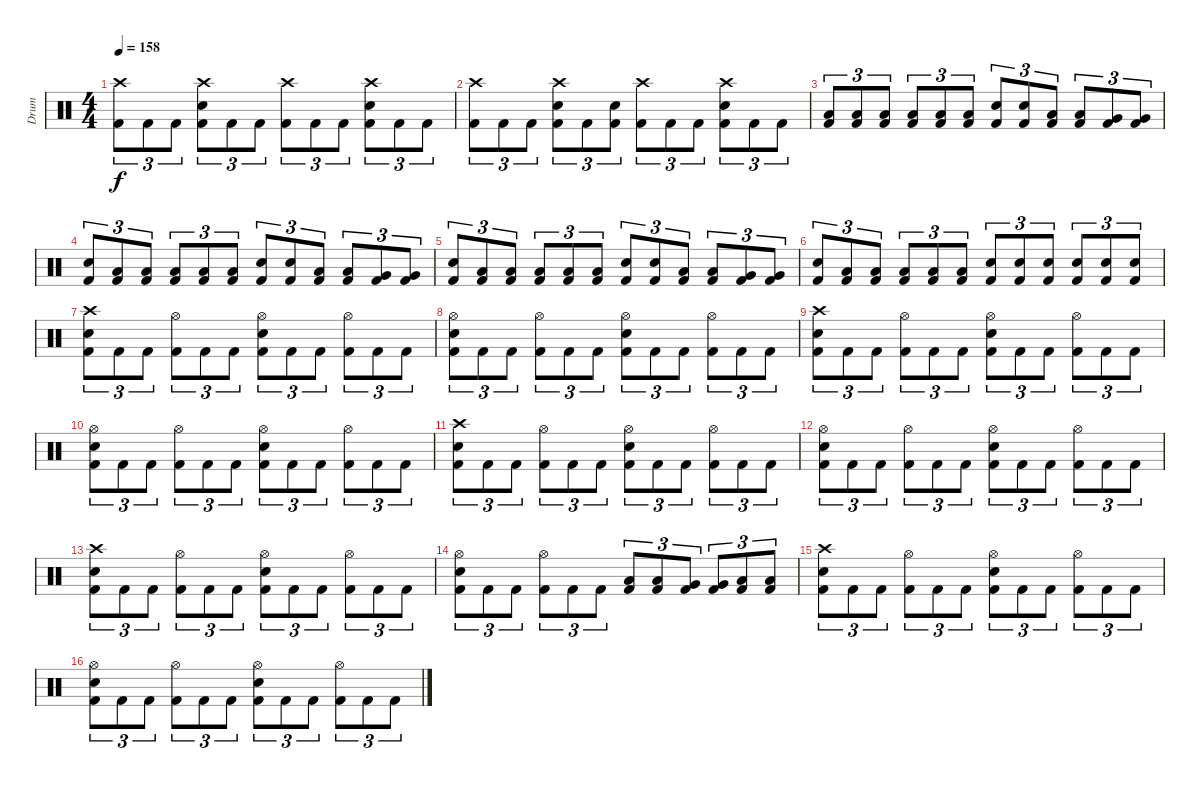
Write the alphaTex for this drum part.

\track ("Drum" "Drum") {instrument percussion}
\staff {score}
\articulation defaults
\ts (4 4)
\tempo 158
\clef neutral
\ks c
("Crash high (hit)" "Kick (hit) 2").8{tu (3 2) dy f} "Kick (hit) 2".8{tu (3 2)} "Kick (hit) 2".8{tu (3 2)} ("Crash high (hit)" "Electric Snare (hit)" "Kick (hit) 2").8{tu (3 2)} "Kick (hit) 2".8{tu (3 2)} "Kick (hit) 2".8{tu (3 2)} ("Crash high (hit)" "Kick (hit) 2").8{tu (3 2)} "Kick (hit) 2".8{tu (3 2)} "Kick (hit) 2".8{tu (3 2)} ("Crash high (hit)" "Electric Snare (hit)" "Kick (hit) 2").8{tu (3 2)} "Kick (hit) 2".8{tu (3 2)} "Kick (hit) 2".8{tu (3 2)} |
("Crash high (hit)" "Kick (hit) 2").8{tu (3 2)} "Kick (hit) 2".8{tu (3 2)} "Kick (hit) 2".8{tu (3 2)} ("Crash high (hit)" "Electric Snare (hit)" "Kick (hit) 2").8{tu (3 2)} "Kick (hit) 2".8{tu (3 2)} ("Electric Snare (hit)" "Kick (hit) 2").8{tu (3 2)} ("Crash high (hit)" "Kick (hit) 2").8{tu (3 2)} "Kick (hit) 2".8{tu (3 2)} "Kick (hit) 2".8{tu (3 2)} ("Crash high (hit)" "Electric Snare (hit)" "Kick (hit) 2").8{tu (3 2)} "Kick (hit) 2".8{tu (3 2)} "Kick (hit) 2".8{tu (3 2)} |
("Low Floor Tom (hit)" "Kick (hit) 2").8{tu (3 2)} ("Low Floor Tom (hit)" "Kick (hit) 2").8{tu (3 2)} ("Low Floor Tom (hit)" "Kick (hit) 2").8{tu (3 2)} ("Low Floor Tom (hit)" "Kick (hit) 2").8{tu (3 2)} ("Low Floor Tom (hit)" "Kick (hit) 2").8{tu (3 2)} ("Low Floor Tom (hit)" "Kick (hit) 2").8{tu (3 2)} ("Electric Snare (hit)" "Kick (hit) 2").8{tu (3 2)} ("Electric Snare (hit)" "Kick (hit) 2").8{tu (3 2)} ("Low Tom (hit)" "Kick (hit) 2").8{tu (3 2)} ("Low Tom (hit)" "Kick (hit) 2").8{tu (3 2)} ("Very Low Tom (hit)" "Kick (hit) 2").8{tu (3 2)} ("Very Low Tom (hit)" "Kick (hit) 2").8{tu (3 2)} |
("Electric Snare (hit)" "Kick (hit) 2").8{tu (3 2)} ("Low Floor Tom (hit)" "Kick (hit) 2").8{tu (3 2)} ("Low Floor Tom (hit)" "Kick (hit) 2").8{tu (3 2)} ("Low Floor Tom (hit)" "Kick (hit) 2").8{tu (3 2)} ("Low Floor Tom (hit)" "Kick (hit) 2").8{tu (3 2)} ("Low Floor Tom (hit)" "Kick (hit) 2").8{tu (3 2)} ("Electric Snare (hit)" "Kick (hit) 2").8{tu (3 2)} ("Electric Snare (hit)" "Kick (hit) 2").8{tu (3 2)} ("Low Tom (hit)" "Kick (hit) 2").8{tu (3 2)} ("Low Tom (hit)" "Kick (hit) 2").8{tu (3 2)} ("Very Low Tom (hit)" "Kick (hit) 2").8{tu (3 2)} ("Very Low Tom (hit)" "Kick (hit) 2").8{tu (3 2)} |
("Electric Snare (hit)" "Kick (hit) 2").8{tu (3 2)} ("Low Floor Tom (hit)" "Kick (hit) 2").8{tu (3 2)} ("Low Floor Tom (hit)" "Kick (hit) 2").8{tu (3 2)} ("Low Floor Tom (hit)" "Kick (hit) 2").8{tu (3 2)} ("Low Floor Tom (hit)" "Kick (hit) 2").8{tu (3 2)} ("Low Floor Tom (hit)" "Kick (hit) 2").8{tu (3 2)} ("Electric Snare (hit)" "Kick (hit) 2").8{tu (3 2)} ("Electric Snare (hit)" "Kick (hit) 2").8{tu (3 2)} ("Low Tom (hit)" "Kick (hit) 2").8{tu (3 2)} ("Low Tom (hit)" "Kick (hit) 2").8{tu (3 2)} ("Very Low Tom (hit)" "Kick (hit) 2").8{tu (3 2)} ("Very Low Tom (hit)" "Kick (hit) 2").8{tu (3 2)} |
("Electric Snare (hit)" "Kick (hit) 2").8{tu (3 2)} ("Low Floor Tom (hit)" "Kick (hit) 2").8{tu (3 2)} ("Low Floor Tom (hit)" "Kick (hit) 2").8{tu (3 2)} ("Low Floor Tom (hit)" "Kick (hit) 2").8{tu (3 2)} ("Low Floor Tom (hit)" "Kick (hit) 2").8{tu (3 2)} ("Low Floor Tom (hit)" "Kick (hit) 2").8{tu (3 2)} ("Electric Snare (hit)" "Kick (hit) 2").8{tu (3 2)} ("Electric Snare (hit)" "Kick (hit) 2").8{tu (3 2)} ("Electric Snare (hit)" "Kick (hit) 2").8{tu (3 2)} ("Electric Snare (hit)" "Kick (hit) 2").8{tu (3 2)} ("Electric Snare (hit)" "Kick (hit) 2").8{tu (3 2)} ("Electric Snare (hit)" "Kick (hit) 2").8{tu (3 2)} |
("Crash high (hit)" "Electric Snare (hit)" "Kick (hit) 2").8{tu (3 2)} "Kick (hit) 2".8{tu (3 2)} "Kick (hit) 2".8{tu (3 2)} ("Hi-Hat (open)" "Kick (hit) 2").8{tu (3 2)} "Kick (hit) 2".8{tu (3 2)} "Kick (hit) 2".8{tu (3 2)} ("Hi-Hat (open)" "Electric Snare (hit)" "Kick (hit) 2").8{tu (3 2)} "Kick (hit) 2".8{tu (3 2)} "Kick (hit) 2".8{tu (3 2)} ("Hi-Hat (open)" "Kick (hit) 2").8{tu (3 2)} "Kick (hit) 2".8{tu (3 2)} "Kick (hit) 2".8{tu (3 2)} |
("Hi-Hat (open)" "Electric Snare (hit)" "Kick (hit) 2").8{tu (3 2)} "Kick (hit) 2".8{tu (3 2)} "Kick (hit) 2".8{tu (3 2)} ("Hi-Hat (open)" "Kick (hit) 2").8{tu (3 2)} "Kick (hit) 2".8{tu (3 2)} "Kick (hit) 2".8{tu (3 2)} ("Hi-Hat (open)" "Electric Snare (hit)" "Kick (hit) 2").8{tu (3 2)} "Kick (hit) 2".8{tu (3 2)} "Kick (hit) 2".8{tu (3 2)} ("Hi-Hat (open)" "Kick (hit) 2").8{tu (3 2)} "Kick (hit) 2".8{tu (3 2)} "Kick (hit) 2".8{tu (3 2)} |
("Crash high (hit)" "Electric Snare (hit)" "Kick (hit) 2").8{tu (3 2)} "Kick (hit) 2".8{tu (3 2)} "Kick (hit) 2".8{tu (3 2)} ("Hi-Hat (open)" "Kick (hit) 2").8{tu (3 2)} "Kick (hit) 2".8{tu (3 2)} "Kick (hit) 2".8{tu (3 2)} ("Hi-Hat (open)" "Electric Snare (hit)" "Kick (hit) 2").8{tu (3 2)} "Kick (hit) 2".8{tu (3 2)} "Kick (hit) 2".8{tu (3 2)} ("Hi-Hat (open)" "Kick (hit) 2").8{tu (3 2)} "Kick (hit) 2".8{tu (3 2)} "Kick (hit) 2".8{tu (3 2)} |
("Hi-Hat (open)" "Electric Snare (hit)" "Kick (hit) 2").8{tu (3 2)} "Kick (hit) 2".8{tu (3 2)} "Kick (hit) 2".8{tu (3 2)} ("Hi-Hat (open)" "Kick (hit) 2").8{tu (3 2)} "Kick (hit) 2".8{tu (3 2)} "Kick (hit) 2".8{tu (3 2)} ("Hi-Hat (open)" "Electric Snare (hit)" "Kick (hit) 2").8{tu (3 2)} "Kick (hit) 2".8{tu (3 2)} "Kick (hit) 2".8{tu (3 2)} ("Hi-Hat (open)" "Kick (hit) 2").8{tu (3 2)} "Kick (hit) 2".8{tu (3 2)} "Kick (hit) 2".8{tu (3 2)} |
("Crash high (hit)" "Electric Snare (hit)" "Kick (hit) 2").8{tu (3 2)} "Kick (hit) 2".8{tu (3 2)} "Kick (hit) 2".8{tu (3 2)} ("Hi-Hat (open)" "Kick (hit) 2").8{tu (3 2)} "Kick (hit) 2".8{tu (3 2)} "Kick (hit) 2".8{tu (3 2)} ("Hi-Hat (open)" "Electric Snare (hit)" "Kick (hit) 2").8{tu (3 2)} "Kick (hit) 2".8{tu (3 2)} "Kick (hit) 2".8{tu (3 2)} ("Hi-Hat (open)" "Kick (hit) 2").8{tu (3 2)} "Kick (hit) 2".8{tu (3 2)} "Kick (hit) 2".8{tu (3 2)} |
("Hi-Hat (open)" "Electric Snare (hit)" "Kick (hit) 2").8{tu (3 2)} "Kick (hit) 2".8{tu (3 2)} "Kick (hit) 2".8{tu (3 2)} ("Hi-Hat (open)" "Kick (hit) 2").8{tu (3 2)} "Kick (hit) 2".8{tu (3 2)} "Kick (hit) 2".8{tu (3 2)} ("Hi-Hat (open)" "Electric Snare (hit)" "Kick (hit) 2").8{tu (3 2)} "Kick (hit) 2".8{tu (3 2)} "Kick (hit) 2".8{tu (3 2)} ("Hi-Hat (open)" "Kick (hit) 2").8{tu (3 2)} "Kick (hit) 2".8{tu (3 2)} "Kick (hit) 2".8{tu (3 2)} |
("Crash high (hit)" "Electric Snare (hit)" "Kick (hit) 2").8{tu (3 2)} "Kick (hit) 2".8{tu (3 2)} "Kick (hit) 2".8{tu (3 2)} ("Hi-Hat (open)" "Kick (hit) 2").8{tu (3 2)} "Kick (hit) 2".8{tu (3 2)} "Kick (hit) 2".8{tu (3 2)} ("Hi-Hat (open)" "Electric Snare (hit)" "Kick (hit) 2").8{tu (3 2)} "Kick (hit) 2".8{tu (3 2)} "Kick (hit) 2".8{tu (3 2)} ("Hi-Hat (open)" "Kick (hit) 2").8{tu (3 2)} "Kick (hit) 2".8{tu (3 2)} "Kick (hit) 2".8{tu (3 2)} |
("Hi-Hat (open)" "Electric Snare (hit)" "Kick (hit) 2").8{tu (3 2)} "Kick (hit) 2".8{tu (3 2)} "Kick (hit) 2".8{tu (3 2)} ("Hi-Hat (open)" "Kick (hit) 2").8{tu (3 2)} "Kick (hit) 2".8{tu (3 2)} "Kick (hit) 2".8{tu (3 2)} ("Low Tom (hit)" "Kick (hit) 2").8{tu (3 2)} ("Low Tom (hit)" "Kick (hit) 2").8{tu (3 2)} ("Very Low Tom (hit)" "Kick (hit) 2").8{tu (3 2)} ("Very Low Tom (hit)" "Kick (hit) 2").8{tu (3 2)} ("Low Floor Tom (hit)" "Kick (hit) 2").8{tu (3 2)} ("Low Floor Tom (hit)" "Kick (hit) 2").8{tu (3 2)} |
("Crash high (hit)" "Electric Snare (hit)" "Kick (hit) 2").8{tu (3 2)} "Kick (hit) 2".8{tu (3 2)} "Kick (hit) 2".8{tu (3 2)} ("Hi-Hat (open)" "Kick (hit) 2").8{tu (3 2)} "Kick (hit) 2".8{tu (3 2)} "Kick (hit) 2".8{tu (3 2)} ("Hi-Hat (open)" "Electric Snare (hit)" "Kick (hit) 2").8{tu (3 2)} "Kick (hit) 2".8{tu (3 2)} "Kick (hit) 2".8{tu (3 2)} ("Hi-Hat (open)" "Kick (hit) 2").8{tu (3 2)} "Kick (hit) 2".8{tu (3 2)} "Kick (hit) 2".8{tu (3 2)} |
("Hi-Hat (open)" "Electric Snare (hit)" "Kick (hit) 2").8{tu (3 2)} "Kick (hit) 2".8{tu (3 2)} "Kick (hit) 2".8{tu (3 2)} ("Hi-Hat (open)" "Kick (hit) 2").8{tu (3 2)} "Kick (hit) 2".8{tu (3 2)} "Kick (hit) 2".8{tu (3 2)} ("Hi-Hat (open)" "Electric Snare (hit)" "Kick (hit) 2").8{tu (3 2)} "Kick (hit) 2".8{tu (3 2)} "Kick (hit) 2".8{tu (3 2)} ("Hi-Hat (open)" "Kick (hit) 2").8{tu (3 2)} "Kick (hit) 2".8{tu (3 2)} "Kick (hit) 2".8{tu (3 2)}
